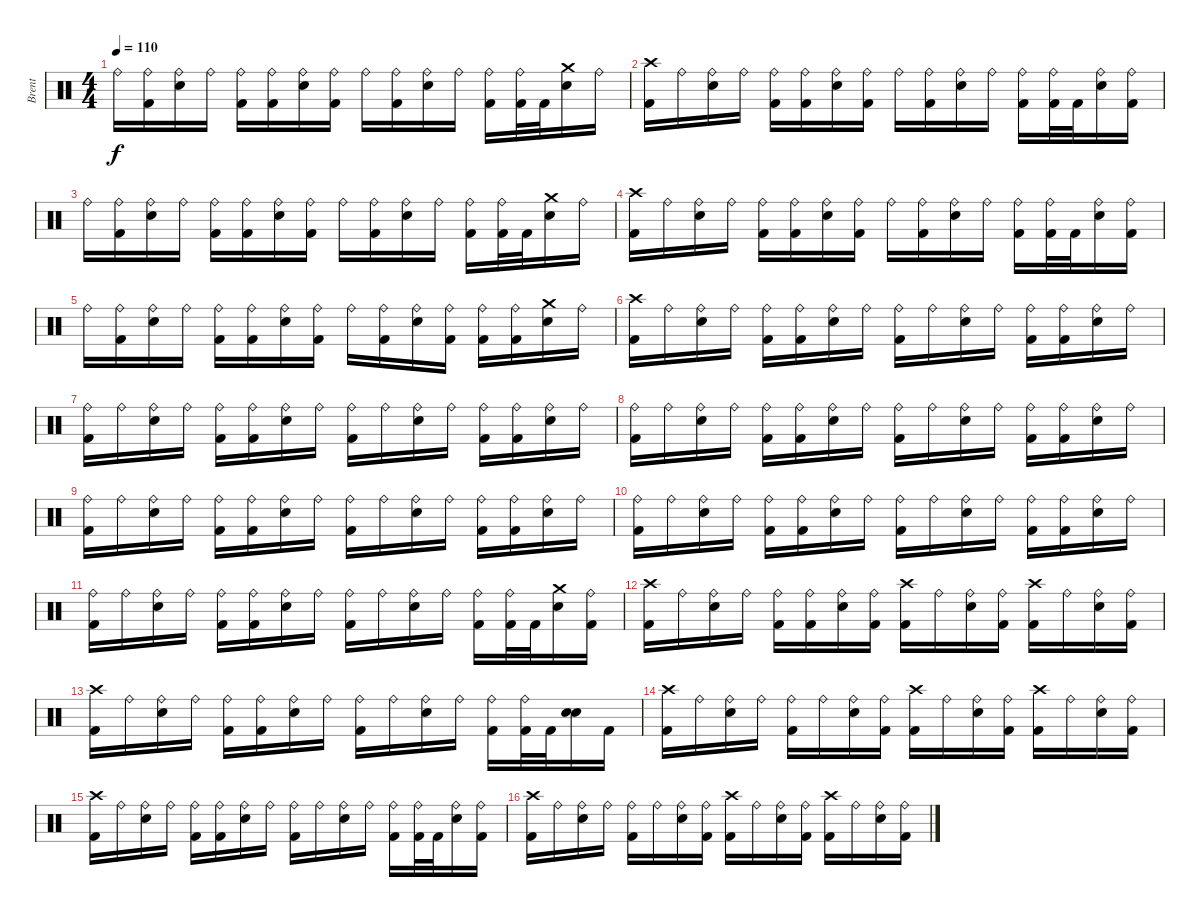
\track ("Brent" "Brent") {instrument percussion}
\staff {score}
\articulation defaults
\ts (4 4)
\tempo 110
\clef neutral
\ks c "Ride (bell)".16{dy f}
("Ride (bell)" "Kick (hit) 2").16 ("Ride (bell)" "Snare (hit) 2").16 "Ride (bell)".16 ("Ride (bell)" "Kick (hit) 2").16 ("Ride (bell)" "Kick (hit) 2").16 ("Ride (bell)" "Snare (hit) 2").16 ("Ride (bell)" "Kick (hit) 2").16 "Ride (bell)".16 ("Ride (bell)" "Kick (hit) 2").16 ("Ride (bell)" "Snare (hit) 2").16 "Ride (bell)".16 ("Ride (bell)" "Kick (hit) 2").16 ("Ride (bell)" "Kick (hit) 2").32 "Kick (hit) 2".32 ("Crash medium (hit)" "Snare (hit) 2").16 "Ride (bell)".16 |
("Crash high (hit)" "Kick (hit) 2").16 "Ride (bell)".16 ("Ride (bell)" "Snare (hit) 2").16 "Ride (bell)".16 ("Ride (bell)" "Kick (hit) 2").16 ("Ride (bell)" "Kick (hit) 2").16 ("Ride (bell)" "Snare (hit) 2").16 ("Ride (bell)" "Kick (hit) 2").16 "Ride (bell)".16 ("Ride (bell)" "Kick (hit) 2").16 ("Ride (bell)" "Snare (hit) 2").16 "Ride (bell)".16 ("Ride (bell)" "Kick (hit) 2").16 ("Ride (bell)" "Kick (hit) 2").32 "Kick (hit) 2".32 ("Ride (bell)" "Snare (hit) 2").16 ("Ride (bell)" "Kick (hit) 2").16 |
"Ride (bell)".16 ("Ride (bell)" "Kick (hit) 2").16 ("Ride (bell)" "Snare (hit) 2").16 "Ride (bell)".16 ("Ride (bell)" "Kick (hit) 2").16 ("Ride (bell)" "Kick (hit) 2").16 ("Ride (bell)" "Snare (hit) 2").16 ("Ride (bell)" "Kick (hit) 2").16 "Ride (bell)".16 ("Ride (bell)" "Kick (hit) 2").16 ("Ride (bell)" "Snare (hit) 2").16 "Ride (bell)".16 ("Ride (bell)" "Kick (hit) 2").16 ("Ride (bell)" "Kick (hit) 2").32 "Kick (hit) 2".32 ("Crash medium (hit)" "Snare (hit) 2").16 "Ride (bell)".16 |
("Crash high (hit)" "Kick (hit) 2").16 "Ride (bell)".16 ("Ride (bell)" "Snare (hit) 2").16 "Ride (bell)".16 ("Ride (bell)" "Kick (hit) 2").16 ("Ride (bell)" "Kick (hit) 2").16 ("Ride (bell)" "Snare (hit) 2").16 ("Ride (bell)" "Kick (hit) 2").16 "Ride (bell)".16 ("Ride (bell)" "Kick (hit) 2").16 ("Ride (bell)" "Snare (hit) 2").16 "Ride (bell)".16 ("Ride (bell)" "Kick (hit) 2").16 ("Ride (bell)" "Kick (hit) 2").32 "Kick (hit) 2".32 ("Ride (bell)" "Snare (hit) 2").16 ("Ride (bell)" "Kick (hit) 2").16 |
"Ride (bell)".16 ("Ride (bell)" "Kick (hit) 2").16 ("Ride (bell)" "Snare (hit) 2").16 "Ride (bell)".16 ("Ride (bell)" "Kick (hit) 2").16 ("Ride (bell)" "Kick (hit) 2").16 ("Ride (bell)" "Snare (hit) 2").16 ("Ride (bell)" "Kick (hit) 2").16 "Ride (bell)".16 ("Ride (bell)" "Kick (hit) 2").16 ("Ride (bell)" "Snare (hit) 2").16 ("Ride (bell)" "Kick (hit) 2").16 ("Ride (bell)" "Kick (hit) 2").16 ("Ride (bell)" "Kick (hit) 2").16 ("Crash medium (hit)" "Snare (hit) 2").16 "Ride (bell)".16 |
("Crash high (hit)" "Kick (hit) 2").16 "Ride (bell)".16 ("Ride (bell)" "Snare (hit) 2").16 "Ride (bell)".16 ("Ride (bell)" "Kick (hit) 2").16 ("Ride (bell)" "Kick (hit) 2").16 ("Ride (bell)" "Snare (hit) 2").16 "Ride (bell)".16 ("Ride (bell)" "Kick (hit) 2").16 "Ride (bell)".16 ("Ride (bell)" "Snare (hit) 2").16 "Ride (bell)".16 ("Ride (bell)" "Kick (hit) 2").16 ("Ride (bell)" "Kick (hit) 2").16 ("Ride (bell)" "Snare (hit) 2").16 "Ride (bell)".16 |
("Ride (bell)" "Kick (hit) 2").16 "Ride (bell)".16 ("Ride (bell)" "Snare (hit) 2").16 "Ride (bell)".16 ("Ride (bell)" "Kick (hit) 2").16 ("Ride (bell)" "Kick (hit) 2").16 ("Ride (bell)" "Snare (hit) 2").16 "Ride (bell)".16 ("Ride (bell)" "Kick (hit) 2").16 "Ride (bell)".16 ("Ride (bell)" "Snare (hit) 2").16 "Ride (bell)".16 ("Ride (bell)" "Kick (hit) 2").16 ("Ride (bell)" "Kick (hit) 2").16 ("Ride (bell)" "Snare (hit) 2").16 "Ride (bell)".16 |
("Ride (bell)" "Kick (hit) 2").16 "Ride (bell)".16 ("Ride (bell)" "Snare (hit) 2").16 "Ride (bell)".16 ("Ride (bell)" "Kick (hit) 2").16 ("Ride (bell)" "Kick (hit) 2").16 ("Ride (bell)" "Snare (hit) 2").16 "Ride (bell)".16 ("Ride (bell)" "Kick (hit) 2").16 "Ride (bell)".16 ("Ride (bell)" "Snare (hit) 2").16 "Ride (bell)".16 ("Ride (bell)" "Kick (hit) 2").16 ("Ride (bell)" "Kick (hit) 2").16 ("Ride (bell)" "Snare (hit) 2").16 "Ride (bell)".16 |
("Ride (bell)" "Kick (hit) 2").16 "Ride (bell)".16 ("Ride (bell)" "Snare (hit) 2").16 "Ride (bell)".16 ("Ride (bell)" "Kick (hit) 2").16 ("Ride (bell)" "Kick (hit) 2").16 ("Ride (bell)" "Snare (hit) 2").16 "Ride (bell)".16 ("Ride (bell)" "Kick (hit) 2").16 "Ride (bell)".16 ("Ride (bell)" "Snare (hit) 2").16 "Ride (bell)".16 ("Ride (bell)" "Kick (hit) 2").16 ("Ride (bell)" "Kick (hit) 2").16 ("Ride (bell)" "Snare (hit) 2").16 "Ride (bell)".16 |
("Ride (bell)" "Kick (hit) 2").16 "Ride (bell)".16 ("Ride (bell)" "Snare (hit) 2").16 "Ride (bell)".16 ("Ride (bell)" "Kick (hit) 2").16 ("Ride (bell)" "Kick (hit) 2").16 ("Ride (bell)" "Snare (hit) 2").16 "Ride (bell)".16 ("Ride (bell)" "Kick (hit) 2").16 "Ride (bell)".16 ("Ride (bell)" "Snare (hit) 2").16 "Ride (bell)".16 ("Ride (bell)" "Kick (hit) 2").16 ("Ride (bell)" "Kick (hit) 2").16 ("Ride (bell)" "Snare (hit) 2").16 "Ride (bell)".16 |
("Ride (bell)" "Kick (hit) 2").16 "Ride (bell)".16 ("Ride (bell)" "Snare (hit) 2").16 "Ride (bell)".16 ("Ride (bell)" "Kick (hit) 2").16 ("Ride (bell)" "Kick (hit) 2").16 ("Ride (bell)" "Snare (hit) 2").16 "Ride (bell)".16 ("Ride (bell)" "Kick (hit) 2").16 "Ride (bell)".16 ("Ride (bell)" "Snare (hit) 2").16 "Ride (bell)".16 ("Ride (bell)" "Kick (hit) 2").16 ("Ride (bell)" "Kick (hit) 2").32 "Kick (hit) 2".32 ("Crash medium (hit)" "Snare (hit) 2").16 ("Ride (bell)" "Kick (hit) 2").16 |
("Crash high (hit)" "Kick (hit) 2").16 "Ride (bell)".16 ("Ride (bell)" "Snare (hit) 2").16 "Ride (bell)".16 ("Ride (bell)" "Kick (hit) 2").16 ("Ride (bell)" "Kick (hit) 2").16 ("Ride (bell)" "Snare (hit) 2").16 ("Ride (bell)" "Kick (hit) 2").16 ("Crash high (hit)" "Kick (hit) 2").16 "Ride (bell)".16 ("Ride (bell)" "Snare (hit) 2").16 ("Ride (bell)" "Kick (hit) 2").16 ("Crash high (hit)" "Kick (hit) 2").16 "Ride (bell)".16 ("Ride (bell)" "Snare (hit) 2").16 ("Ride (bell)" "Kick (hit) 2").16 |
("Crash high (hit)" "Kick (hit) 2").16 "Ride (bell)".16 ("Ride (bell)" "Snare (hit) 2").16 "Ride (bell)".16 ("Ride (bell)" "Kick (hit) 2").16 ("Ride (bell)" "Kick (hit) 2").16 ("Ride (bell)" "Snare (hit) 2").16 "Ride (bell)".16 ("Ride (bell)" "Kick (hit) 2").16 "Ride (bell)".16 ("Ride (bell)" "Snare (hit) 2").16 "Ride (bell)".16 ("Ride (bell)" "Kick (hit) 2").16 ("Ride (bell)" "Kick (hit) 2").32 "Kick (hit) 2".32 ("Snare (hit) 2" "Snare (hit) 2").16 "Kick (hit) 2".16 |
("Crash high (hit)" "Kick (hit) 2").16 "Ride (bell)".16 ("Ride (bell)" "Snare (hit) 2").16 "Ride (bell)".16 ("Ride (bell)" "Kick (hit) 2").16 "Ride (bell)".16 ("Ride (bell)" "Snare (hit) 2").16 ("Ride (bell)" "Kick (hit) 2").16 ("Crash high (hit)" "Kick (hit) 2").16 "Ride (bell)".16 ("Ride (bell)" "Snare (hit) 2").16 ("Ride (bell)" "Kick (hit) 2").16 ("Crash high (hit)" "Kick (hit) 2").16 "Ride (bell)".16 ("Ride (bell)" "Snare (hit) 2").16 ("Ride (bell)" "Kick (hit) 2").16 |
("Crash high (hit)" "Kick (hit) 2").16 "Ride (bell)".16 ("Ride (bell)" "Snare (hit) 2").16 "Ride (bell)".16 ("Ride (bell)" "Kick (hit) 2").16 ("Ride (bell)" "Kick (hit) 2").16 ("Ride (bell)" "Snare (hit) 2").16 "Ride (bell)".16 ("Ride (bell)" "Kick (hit) 2").16 "Ride (bell)".16 ("Ride (bell)" "Snare (hit) 2").16 "Ride (bell)".16 ("Ride (bell)" "Kick (hit) 2").16 ("Ride (bell)" "Kick (hit) 2").32 "Kick (hit) 2".32 ("Ride (bell)" "Snare (hit) 2").16 ("Ride (bell)" "Kick (hit) 2").16 |
("Crash high (hit)" "Kick (hit) 2").16 "Ride (bell)".16 ("Ride (bell)" "Snare (hit) 2").16 "Ride (bell)".16 ("Ride (bell)" "Kick (hit) 2").16 "Ride (bell)".16 ("Ride (bell)" "Snare (hit) 2").16 ("Ride (bell)" "Kick (hit) 2").16 ("Crash high (hit)" "Kick (hit) 2").16 "Ride (bell)".16 ("Ride (bell)" "Snare (hit) 2").16 ("Ride (bell)" "Kick (hit) 2").16 ("Crash high (hit)" "Kick (hit) 2").16 "Ride (bell)".16 ("Ride (bell)" "Snare (hit) 2").16 ("Ride (bell)" "Kick (hit) 2").16
